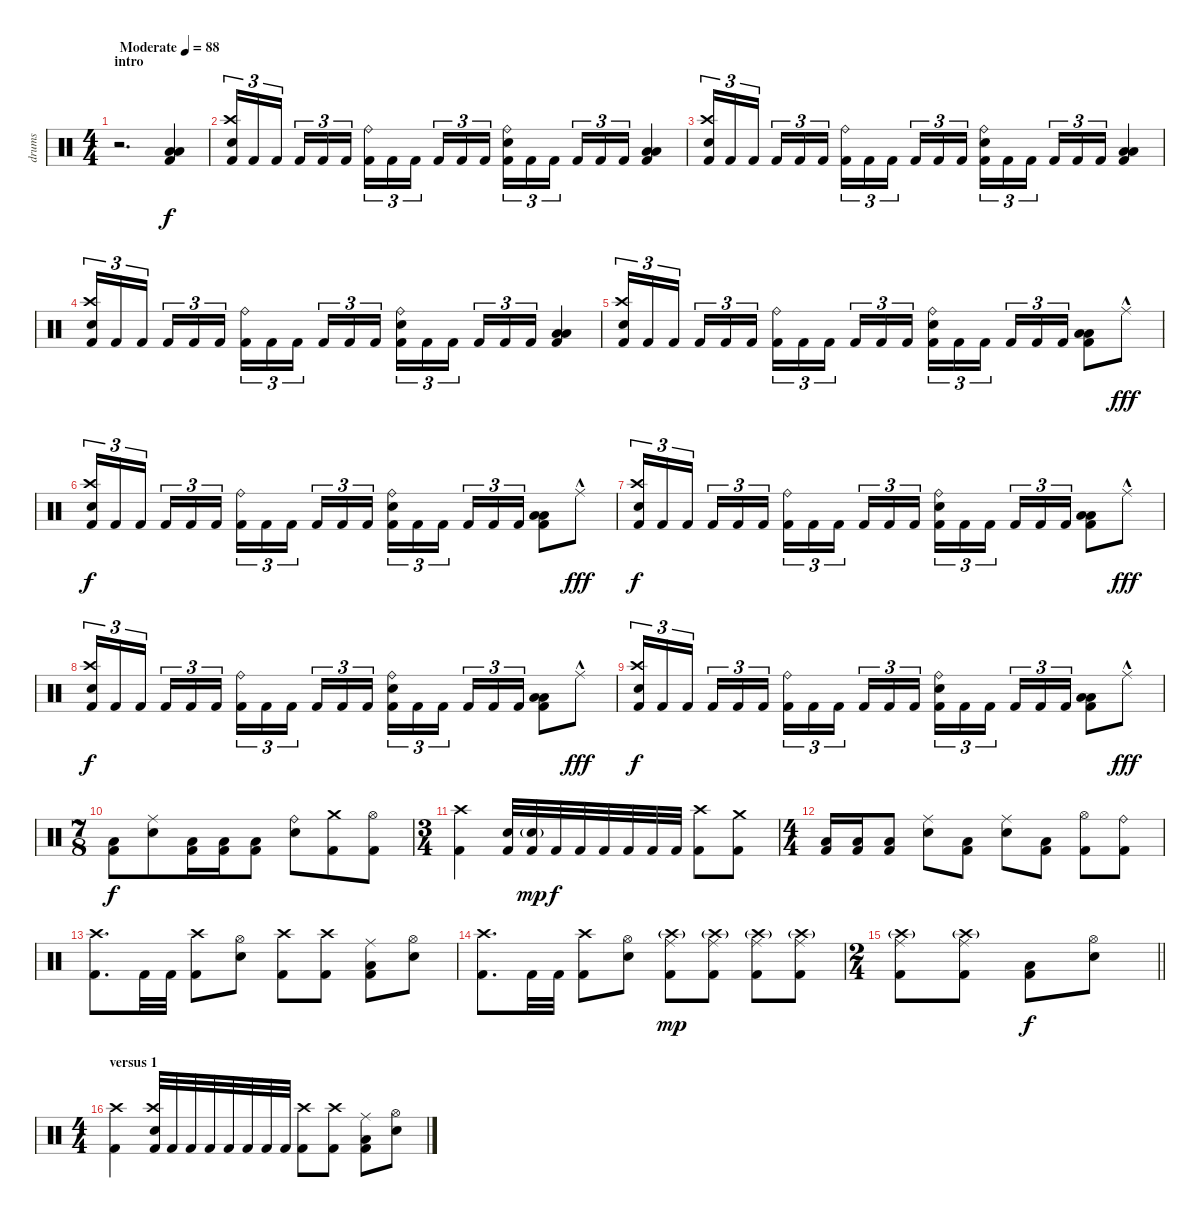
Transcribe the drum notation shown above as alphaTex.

\track ("drums" "drums") {instrument percussion}
\staff {score}
\articulation defaults
\ts (4 4)
\section ("" "intro")
\tempo (88 "Moderate")
\clef neutral
\ks c
r.2{d dy f} ("Low Floor Tom (hit)" "Kick (hit) 2" "Low Floor Tom (hit)").4 |
("Crash high (hit)" "Snare (hit) 2" "Kick (hit) 2").16{tu (3 2)} "Kick (hit) 2".16{tu (3 2)} "Kick (hit) 2".16{tu (3 2) beam splitsecondary} "Kick (hit) 2".16{tu (3 2)} "Kick (hit) 2".16{tu (3 2)} "Kick (hit) 2".16{tu (3 2)} ("Ride (bell)" "Kick (hit) 2").16{tu (3 2)} "Kick (hit) 2".16{tu (3 2)} "Kick (hit) 2".16{tu (3 2) beam splitsecondary} "Kick (hit) 2".16{tu (3 2)} "Kick (hit) 2".16{tu (3 2)} "Kick (hit) 2".16{tu (3 2)} ("Ride (bell)" "Snare (hit) 2" "Kick (hit) 2").16{tu (3 2)} "Kick (hit) 2".16{tu (3 2)} "Kick (hit) 2".16{tu (3 2) beam splitsecondary} "Kick (hit) 2".16{tu (3 2)} "Kick (hit) 2".16{tu (3 2)} "Kick (hit) 2".16{tu (3 2)} ("Low Floor Tom (hit)" "Low Floor Tom (hit)" "Kick (hit) 2").4 |
("Crash high (hit)" "Snare (hit) 2" "Kick (hit) 2").16{tu (3 2)} "Kick (hit) 2".16{tu (3 2)} "Kick (hit) 2".16{tu (3 2) beam splitsecondary} "Kick (hit) 2".16{tu (3 2)} "Kick (hit) 2".16{tu (3 2)} "Kick (hit) 2".16{tu (3 2)} ("Ride (bell)" "Kick (hit) 2").16{tu (3 2)} "Kick (hit) 2".16{tu (3 2)} "Kick (hit) 2".16{tu (3 2) beam splitsecondary} "Kick (hit) 2".16{tu (3 2)} "Kick (hit) 2".16{tu (3 2)} "Kick (hit) 2".16{tu (3 2)} ("Ride (bell)" "Snare (hit) 2" "Kick (hit) 2").16{tu (3 2)} "Kick (hit) 2".16{tu (3 2)} "Kick (hit) 2".16{tu (3 2) beam splitsecondary} "Kick (hit) 2".16{tu (3 2)} "Kick (hit) 2".16{tu (3 2)} "Kick (hit) 2".16{tu (3 2)} ("Low Floor Tom (hit)" "Low Floor Tom (hit)" "Kick (hit) 2").4 |
("Crash high (hit)" "Snare (hit) 2" "Kick (hit) 2").16{tu (3 2)} "Kick (hit) 2".16{tu (3 2)} "Kick (hit) 2".16{tu (3 2) beam splitsecondary} "Kick (hit) 2".16{tu (3 2)} "Kick (hit) 2".16{tu (3 2)} "Kick (hit) 2".16{tu (3 2)} ("Ride (bell)" "Kick (hit) 2").16{tu (3 2)} "Kick (hit) 2".16{tu (3 2)} "Kick (hit) 2".16{tu (3 2) beam splitsecondary} "Kick (hit) 2".16{tu (3 2)} "Kick (hit) 2".16{tu (3 2)} "Kick (hit) 2".16{tu (3 2)} ("Ride (bell)" "Snare (hit) 2" "Kick (hit) 2").16{tu (3 2)} "Kick (hit) 2".16{tu (3 2)} "Kick (hit) 2".16{tu (3 2) beam splitsecondary} "Kick (hit) 2".16{tu (3 2)} "Kick (hit) 2".16{tu (3 2)} "Kick (hit) 2".16{tu (3 2)} ("Low Floor Tom (hit)" "Low Floor Tom (hit)" "Kick (hit) 2").4 |
("Crash high (hit)" "Snare (hit) 2" "Kick (hit) 2").16{tu (3 2)} "Kick (hit) 2".16{tu (3 2)} "Kick (hit) 2".16{tu (3 2) beam splitsecondary} "Kick (hit) 2".16{tu (3 2)} "Kick (hit) 2".16{tu (3 2)} "Kick (hit) 2".16{tu (3 2)} ("Ride (bell)" "Kick (hit) 2").16{tu (3 2)} "Kick (hit) 2".16{tu (3 2)} "Kick (hit) 2".16{tu (3 2) beam splitsecondary} "Kick (hit) 2".16{tu (3 2)} "Kick (hit) 2".16{tu (3 2)} "Kick (hit) 2".16{tu (3 2)} ("Ride (bell)" "Snare (hit) 2" "Kick (hit) 2").16{tu (3 2)} "Kick (hit) 2".16{tu (3 2)} "Kick (hit) 2".16{tu (3 2) beam splitsecondary} "Kick (hit) 2".16{tu (3 2)} "Kick (hit) 2".16{tu (3 2)} "Kick (hit) 2".16{tu (3 2)} ("Low Floor Tom (hit)" "Low Floor Tom (hit)" "Kick (hit) 2").8 "Ride (middle)"{hac}.8{dy fff} |
("Crash high (hit)" "Snare (hit) 2" "Kick (hit) 2").16{tu (3 2) dy f} "Kick (hit) 2".16{tu (3 2)} "Kick (hit) 2".16{tu (3 2) beam splitsecondary} "Kick (hit) 2".16{tu (3 2)} "Kick (hit) 2".16{tu (3 2)} "Kick (hit) 2".16{tu (3 2)} ("Ride (bell)" "Kick (hit) 2").16{tu (3 2)} "Kick (hit) 2".16{tu (3 2)} "Kick (hit) 2".16{tu (3 2) beam splitsecondary} "Kick (hit) 2".16{tu (3 2)} "Kick (hit) 2".16{tu (3 2)} "Kick (hit) 2".16{tu (3 2)} ("Ride (bell)" "Snare (hit) 2" "Kick (hit) 2").16{tu (3 2)} "Kick (hit) 2".16{tu (3 2)} "Kick (hit) 2".16{tu (3 2) beam splitsecondary} "Kick (hit) 2".16{tu (3 2)} "Kick (hit) 2".16{tu (3 2)} "Kick (hit) 2".16{tu (3 2)} ("Low Floor Tom (hit)" "Low Floor Tom (hit)" "Kick (hit) 2").8 "Ride (middle)"{hac}.8{dy fff} |
("Crash high (hit)" "Snare (hit) 2" "Kick (hit) 2").16{tu (3 2) dy f} "Kick (hit) 2".16{tu (3 2)} "Kick (hit) 2".16{tu (3 2) beam splitsecondary} "Kick (hit) 2".16{tu (3 2)} "Kick (hit) 2".16{tu (3 2)} "Kick (hit) 2".16{tu (3 2)} ("Ride (bell)" "Kick (hit) 2").16{tu (3 2)} "Kick (hit) 2".16{tu (3 2)} "Kick (hit) 2".16{tu (3 2) beam splitsecondary} "Kick (hit) 2".16{tu (3 2)} "Kick (hit) 2".16{tu (3 2)} "Kick (hit) 2".16{tu (3 2)} ("Ride (bell)" "Snare (hit) 2" "Kick (hit) 2").16{tu (3 2)} "Kick (hit) 2".16{tu (3 2)} "Kick (hit) 2".16{tu (3 2) beam splitsecondary} "Kick (hit) 2".16{tu (3 2)} "Kick (hit) 2".16{tu (3 2)} "Kick (hit) 2".16{tu (3 2)} ("Low Floor Tom (hit)" "Low Floor Tom (hit)" "Kick (hit) 2").8 "Ride (middle)"{hac}.8{dy fff} |
("Crash high (hit)" "Snare (hit) 2" "Kick (hit) 2").16{tu (3 2) dy f} "Kick (hit) 2".16{tu (3 2)} "Kick (hit) 2".16{tu (3 2) beam splitsecondary} "Kick (hit) 2".16{tu (3 2)} "Kick (hit) 2".16{tu (3 2)} "Kick (hit) 2".16{tu (3 2)} ("Ride (bell)" "Kick (hit) 2").16{tu (3 2)} "Kick (hit) 2".16{tu (3 2)} "Kick (hit) 2".16{tu (3 2) beam splitsecondary} "Kick (hit) 2".16{tu (3 2)} "Kick (hit) 2".16{tu (3 2)} "Kick (hit) 2".16{tu (3 2)} ("Ride (bell)" "Snare (hit) 2" "Kick (hit) 2").16{tu (3 2)} "Kick (hit) 2".16{tu (3 2)} "Kick (hit) 2".16{tu (3 2) beam splitsecondary} "Kick (hit) 2".16{tu (3 2)} "Kick (hit) 2".16{tu (3 2)} "Kick (hit) 2".16{tu (3 2)} ("Low Floor Tom (hit)" "Low Floor Tom (hit)" "Kick (hit) 2").8 "Ride (middle)"{hac}.8{dy fff} |
("Crash high (hit)" "Snare (hit) 2" "Kick (hit) 2").16{tu (3 2) dy f} "Kick (hit) 2".16{tu (3 2)} "Kick (hit) 2".16{tu (3 2) beam splitsecondary} "Kick (hit) 2".16{tu (3 2)} "Kick (hit) 2".16{tu (3 2)} "Kick (hit) 2".16{tu (3 2)} ("Ride (bell)" "Kick (hit) 2").16{tu (3 2)} "Kick (hit) 2".16{tu (3 2)} "Kick (hit) 2".16{tu (3 2) beam splitsecondary} "Kick (hit) 2".16{tu (3 2)} "Kick (hit) 2".16{tu (3 2)} "Kick (hit) 2".16{tu (3 2)} ("Ride (bell)" "Snare (hit) 2" "Kick (hit) 2").16{tu (3 2)} "Kick (hit) 2".16{tu (3 2)} "Kick (hit) 2".16{tu (3 2) beam splitsecondary} "Kick (hit) 2".16{tu (3 2)} "Kick (hit) 2".16{tu (3 2)} "Kick (hit) 2".16{tu (3 2)} ("Low Floor Tom (hit)" "Low Floor Tom (hit)" "Kick (hit) 2").8 "Ride (middle)"{hac}.8{dy fff} |
\ts (7 8)
("Low Floor Tom (hit)" "Kick (hit) 2").8{dy f} ("Ride (middle)" "Snare (hit) 2").8 ("Low Floor Tom (hit)" "Kick (hit) 2").16 ("Low Floor Tom (hit)" "Kick (hit) 2").16 ("Low Floor Tom (hit)" "Kick (hit) 2").8 ("Ride (bell)" "Snare (hit) 2").8 ("Crash medium (hit)" "Kick (hit) 2").8 ("Hi-Hat (open)" "Kick (hit) 2").8 |
\ts (3 4)
("Crash high (hit)" "Kick (hit) 2").4 ("Kick (hit) 2" "Snare (hit) 2").32 ("Snare (hit) 2"{g} "Kick (hit) 2").32{dy mp} "Kick (hit) 2".32{dy f} "Kick (hit) 2".32 "Kick (hit) 2".32 "Kick (hit) 2".32 "Kick (hit) 2".32 "Kick (hit) 2".32 ("Crash high (hit)" "Kick (hit) 2").8 ("Crash medium (hit)" "Kick (hit) 2").8 |
\ts (4 4)
("Low Floor Tom (hit)" "Kick (hit) 2").16 ("Low Floor Tom (hit)" "Kick (hit) 2").16 ("Low Floor Tom (hit)" "Kick (hit) 2").8 ("Ride (middle)" "Snare (hit) 2").8 ("Low Floor Tom (hit)" "Kick (hit) 2").8 ("Ride (middle)" "Snare (hit) 2").8 ("Low Floor Tom (hit)" "Kick (hit) 2").8 ("Hi-Hat (open)" "Kick (hit) 2").8 ("Ride (bell)" "Kick (hit) 2").8 |
("Crash high (hit)" "Kick (hit) 2").8{d} "Kick (hit) 2".32 "Kick (hit) 2".32 ("Crash high (hit)" "Kick (hit) 2").8 ("Hi-Hat (open)" "Snare (hit) 2").8 ("Crash high (hit)" "Kick (hit) 2").8 ("Crash high (hit)" "Kick (hit) 2").8 ("Ride (middle)" "Low Floor Tom (hit)" "Kick (hit) 2").8 ("Hi-Hat (open)" "Snare (hit) 2").8 |
("Crash high (hit)" "Kick (hit) 2").8{d} "Kick (hit) 2".32 "Kick (hit) 2".32 ("Crash high (hit)" "Kick (hit) 2").8 ("Hi-Hat (open)" "Snare (hit) 2").8 ("Ride (middle)" "Crash high (hit)"{g} "Kick (hit) 2").8{dy mp} ("Ride (middle)" "Crash high (hit)"{g} "Kick (hit) 2").8 ("Ride (middle)" "Crash high (hit)"{g} "Kick (hit) 2").8 ("Ride (middle)" "Crash high (hit)"{g} "Kick (hit) 2").8 |
\ts (2 4)
\barLineRight lightlight
("Ride (middle)" "Crash high (hit)"{g} "Kick (hit) 2").8 ("Ride (middle)" "Crash high (hit)"{g} "Kick (hit) 2").8 ("Low Floor Tom (hit)" "Kick (hit) 2").8{dy f} ("Hi-Hat (open)" "Snare (hit) 2").8 |
\ts (4 4)
\section ("" "versus 1")
("Crash high (hit)" "Kick (hit) 2").4 ("Crash high (hit)" "Snare (hit) 2" "Kick (hit) 2").32 "Kick (hit) 2".32 "Kick (hit) 2".32 "Kick (hit) 2".32 "Kick (hit) 2".32 "Kick (hit) 2".32 "Kick (hit) 2".32 "Kick (hit) 2".32 ("Crash high (hit)" "Kick (hit) 2").8 ("Crash high (hit)" "Kick (hit) 2").8 ("Ride (middle)" "Low Floor Tom (hit)" "Kick (hit) 2").8 ("Hi-Hat (open)" "Snare (hit) 2").8
